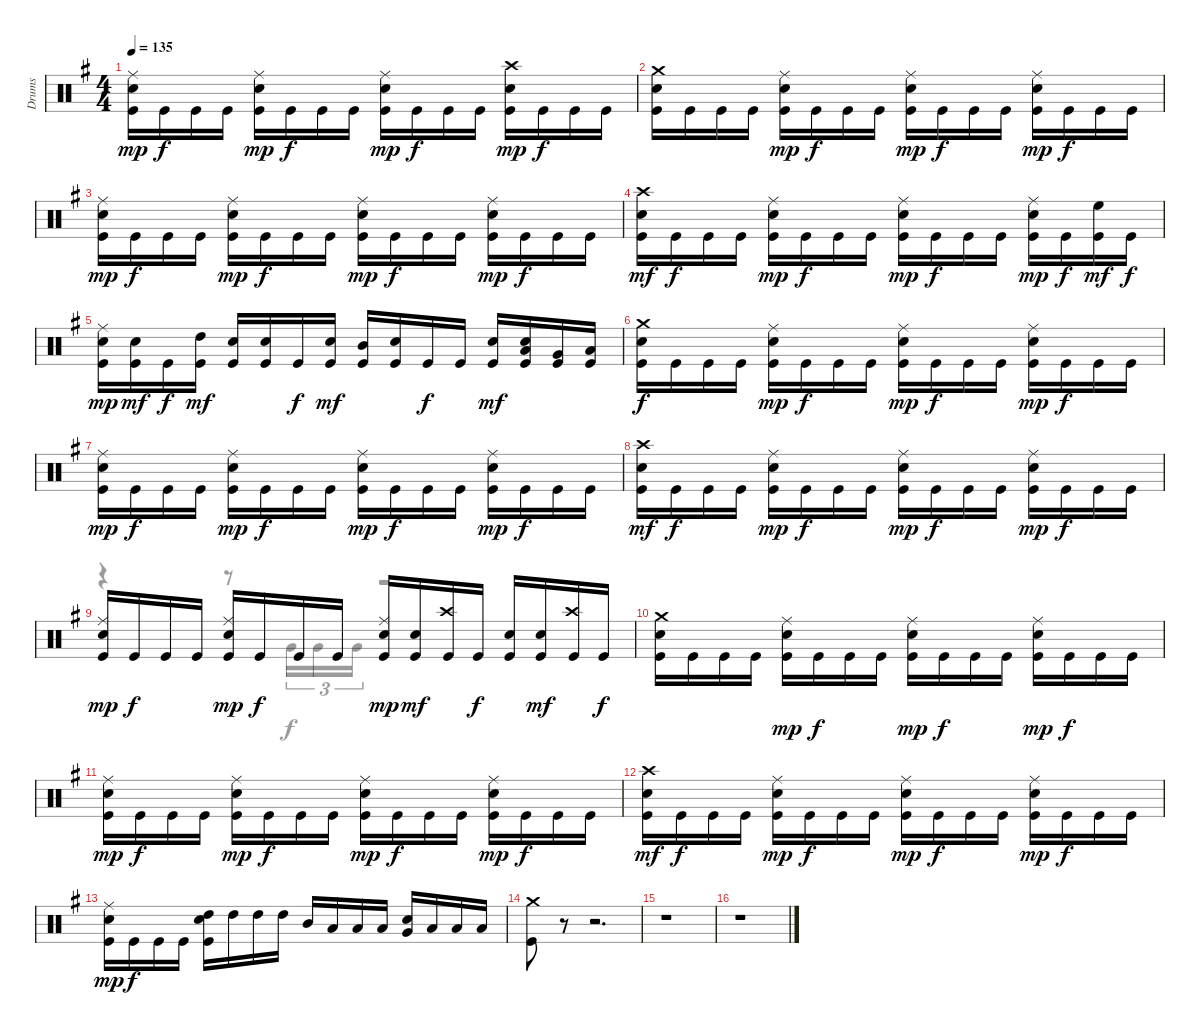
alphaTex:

\track ("Drums" "Drums") {instrument percussion}
\staff {score}
\articulation defaults
\voice
\ts (4 4)
\tempo 135
\clef neutral
\ks eminor
("Ride (middle)" "Snare (hit) 2" "Kick (hit)").16{dy mp} "Kick (hit)".16{dy f} "Kick (hit)".16 "Kick (hit)".16 ("Ride (middle)" "Snare (hit) 2" "Kick (hit)").16{dy mp} "Kick (hit)".16{dy f} "Kick (hit)".16 "Kick (hit)".16 ("Ride (middle)" "Snare (hit) 2" "Kick (hit)").16{dy mp} "Kick (hit)".16{dy f} "Kick (hit)".16 "Kick (hit)".16 ("Crash high (hit)" "Snare (hit) 2" "Kick (hit)").16{dy mp} "Kick (hit)".16{dy f} "Kick (hit)".16 "Kick (hit)".16 |
("Crash medium (hit)" "Snare (hit) 2" "Kick (hit)").16 "Kick (hit)".16 "Kick (hit)".16 "Kick (hit)".16 ("Ride (middle)" "Snare (hit) 2" "Kick (hit)").16{dy mp} "Kick (hit)".16{dy f} "Kick (hit)".16 "Kick (hit)".16 ("Ride (middle)" "Snare (hit) 2" "Kick (hit)").16{dy mp} "Kick (hit)".16{dy f} "Kick (hit)".16 "Kick (hit)".16 ("Ride (middle)" "Snare (hit) 2" "Kick (hit)").16{dy mp} "Kick (hit)".16{dy f} "Kick (hit)".16 "Kick (hit)".16 |
("Ride (middle)" "Snare (hit) 2" "Kick (hit)").16{dy mp} "Kick (hit)".16{dy f} "Kick (hit)".16 "Kick (hit)".16 ("Ride (middle)" "Snare (hit) 2" "Kick (hit)").16{dy mp} "Kick (hit)".16{dy f} "Kick (hit)".16 "Kick (hit)".16 ("Ride (middle)" "Snare (hit) 2" "Kick (hit)").16{dy mp} "Kick (hit)".16{dy f} "Kick (hit)".16 "Kick (hit)".16 ("Ride (middle)" "Snare (hit) 2" "Kick (hit)").16{dy mp} "Kick (hit)".16{dy f} "Kick (hit)".16 "Kick (hit)".16 |
("Crash high (hit)" "Snare (hit) 2" "Kick (hit)").16{dy mf} "Kick (hit)".16{dy f} "Kick (hit)".16 "Kick (hit)".16 ("Ride (middle)" "Snare (hit) 2" "Kick (hit)").16{dy mp} "Kick (hit)".16{dy f} "Kick (hit)".16 "Kick (hit)".16 ("Ride (middle)" "Snare (hit) 2" "Kick (hit)").16{dy mp} "Kick (hit)".16{dy f} "Kick (hit)".16 "Kick (hit)".16 ("Ride (middle)" "Snare (hit) 2" "Kick (hit)").16{dy mp} "Kick (hit)".16{dy f} ("High Floor Tom (hit)" "Kick (hit)").16{dy mf} "Kick (hit)".16{dy f} |
("Ride (middle)" "Snare (hit) 2" "Kick (hit)").16{dy mp} ("Snare (hit) 2" "Kick (hit)").16{dy mf} "Kick (hit)".16{dy f} ("High Tom (hit)" "Kick (hit)").16{dy mf} ("Snare (hit) 2" "Kick (hit)").16 ("Snare (hit) 2" "Kick (hit)").16 "Kick (hit)".16{dy f} ("Snare (hit) 2" "Kick (hit)").16{dy mf} ("Mid Tom (hit)" "Kick (hit)").16 ("Snare (hit) 2" "Kick (hit)").16 "Kick (hit)".16{dy f} "Kick (hit)".16 ("Snare (hit) 2" "Kick (hit)").16{dy mf} ("Low Tom (hit)" "Snare (hit) 2" "Kick (hit)").16 ("Very Low Tom (hit)" "Kick (hit)").16 ("Low Floor Tom (hit)" "Kick (hit)").16 |
("Crash medium (hit)" "Snare (hit) 2" "Kick (hit)").16{dy f} "Kick (hit)".16 "Kick (hit)".16 "Kick (hit)".16 ("Ride (middle)" "Snare (hit) 2" "Kick (hit)").16{dy mp} "Kick (hit)".16{dy f} "Kick (hit)".16 "Kick (hit)".16 ("Ride (middle)" "Snare (hit) 2" "Kick (hit)").16{dy mp} "Kick (hit)".16{dy f} "Kick (hit)".16 "Kick (hit)".16 ("Ride (middle)" "Snare (hit) 2" "Kick (hit)").16{dy mp} "Kick (hit)".16{dy f} "Kick (hit)".16 "Kick (hit)".16 |
("Ride (middle)" "Snare (hit) 2" "Kick (hit)").16{dy mp} "Kick (hit)".16{dy f} "Kick (hit)".16 "Kick (hit)".16 ("Ride (middle)" "Snare (hit) 2" "Kick (hit)").16{dy mp} "Kick (hit)".16{dy f} "Kick (hit)".16 "Kick (hit)".16 ("Ride (middle)" "Snare (hit) 2" "Kick (hit)").16{dy mp} "Kick (hit)".16{dy f} "Kick (hit)".16 "Kick (hit)".16 ("Ride (middle)" "Snare (hit) 2" "Kick (hit)").16{dy mp} "Kick (hit)".16{dy f} "Kick (hit)".16 "Kick (hit)".16 |
("Crash high (hit)" "Snare (hit) 2" "Kick (hit)").16{dy mf} "Kick (hit)".16{dy f} "Kick (hit)".16 "Kick (hit)".16 ("Ride (middle)" "Snare (hit) 2" "Kick (hit)").16{dy mp} "Kick (hit)".16{dy f} "Kick (hit)".16 "Kick (hit)".16 ("Ride (middle)" "Snare (hit) 2" "Kick (hit)").16{dy mp} "Kick (hit)".16{dy f} "Kick (hit)".16 "Kick (hit)".16 ("Ride (middle)" "Snare (hit) 2" "Kick (hit)").16{dy mp} "Kick (hit)".16{dy f} "Kick (hit)".16 "Kick (hit)".16 |
("Ride (middle)" "Snare (hit) 2" "Kick (hit)").16{dy mp} "Kick (hit)".16{dy f} "Kick (hit)".16 "Kick (hit)".16 ("Ride (middle)" "Snare (hit) 2" "Kick (hit)").16{dy mp} "Kick (hit)".16{dy f} "Kick (hit)".16 "Kick (hit)".16 ("Ride (middle)" "Snare (hit) 2" "Kick (hit)").16{dy mp} ("Snare (hit) 2" "Kick (hit)").16{dy mf} ("Crash high (hit)" "Kick (hit)").16 "Kick (hit)".16{dy f} ("Snare (hit) 2" "Kick (hit)").16 ("Snare (hit) 2" "Kick (hit)").16{dy mf} ("Crash high (hit)" "Kick (hit)").16 "Kick (hit)".16{dy f} |
("Crash medium (hit)" "Snare (hit) 2" "Kick (hit)").16 "Kick (hit)".16 "Kick (hit)".16 "Kick (hit)".16 ("Ride (middle)" "Snare (hit) 2" "Kick (hit)").16{dy mp} "Kick (hit)".16{dy f} "Kick (hit)".16 "Kick (hit)".16 ("Ride (middle)" "Snare (hit) 2" "Kick (hit)").16{dy mp} "Kick (hit)".16{dy f} "Kick (hit)".16 "Kick (hit)".16 ("Ride (middle)" "Snare (hit) 2" "Kick (hit)").16{dy mp} "Kick (hit)".16{dy f} "Kick (hit)".16 "Kick (hit)".16 |
("Ride (middle)" "Snare (hit) 2" "Kick (hit)").16{dy mp} "Kick (hit)".16{dy f} "Kick (hit)".16 "Kick (hit)".16 ("Ride (middle)" "Snare (hit) 2" "Kick (hit)").16{dy mp} "Kick (hit)".16{dy f} "Kick (hit)".16 "Kick (hit)".16 ("Ride (middle)" "Snare (hit) 2" "Kick (hit)").16{dy mp} "Kick (hit)".16{dy f} "Kick (hit)".16 "Kick (hit)".16 ("Ride (middle)" "Snare (hit) 2" "Kick (hit)").16{dy mp} "Kick (hit)".16{dy f} "Kick (hit)".16 "Kick (hit)".16 |
("Crash high (hit)" "Snare (hit) 2" "Kick (hit)").16{dy mf} "Kick (hit)".16{dy f} "Kick (hit)".16 "Kick (hit)".16 ("Ride (middle)" "Snare (hit) 2" "Kick (hit)").16{dy mp} "Kick (hit)".16{dy f} "Kick (hit)".16 "Kick (hit)".16 ("Ride (middle)" "Snare (hit) 2" "Kick (hit)").16{dy mp} "Kick (hit)".16{dy f} "Kick (hit)".16 "Kick (hit)".16 ("Ride (middle)" "Snare (hit) 2" "Kick (hit)").16{dy mp} "Kick (hit)".16{dy f} "Kick (hit)".16 "Kick (hit)".16 |
("Ride (middle)" "Snare (hit) 2" "Kick (hit)").16{dy mp} "Kick (hit)".16{dy f} "Kick (hit)".16 "Kick (hit)".16 ("High Tom (hit)" "Snare (hit) 2" "Kick (hit)").16 "High Tom (hit)".16 "High Tom (hit)".16 "High Tom (hit)".16 "Mid Tom (hit)".16 "Low Tom (hit)".16 "Low Tom (hit)".16 "Low Tom (hit)".16 ("Very Low Tom (hit)" "Snare (hit) 2").16 "Low Floor Tom (hit)".16 "Low Floor Tom (hit)".16 "Low Floor Tom (hit)".16 |
("Crash medium (hit)" "Kick (hit)").8 r.8 r.2{d} |
r.1 |
r.1
\voice
\clef neutral
\ottava regular
\simile none
\ks eminor
|
|
|
|
|
|
|
|
r.4 r.8 "Very Low Tom (hit)".16{tu (3 2)} "Very Low Tom (hit)".16{tu (3 2)} "Very Low Tom (hit)".16{tu (3 2)} r.2 |
|
|
|
|
|
|
